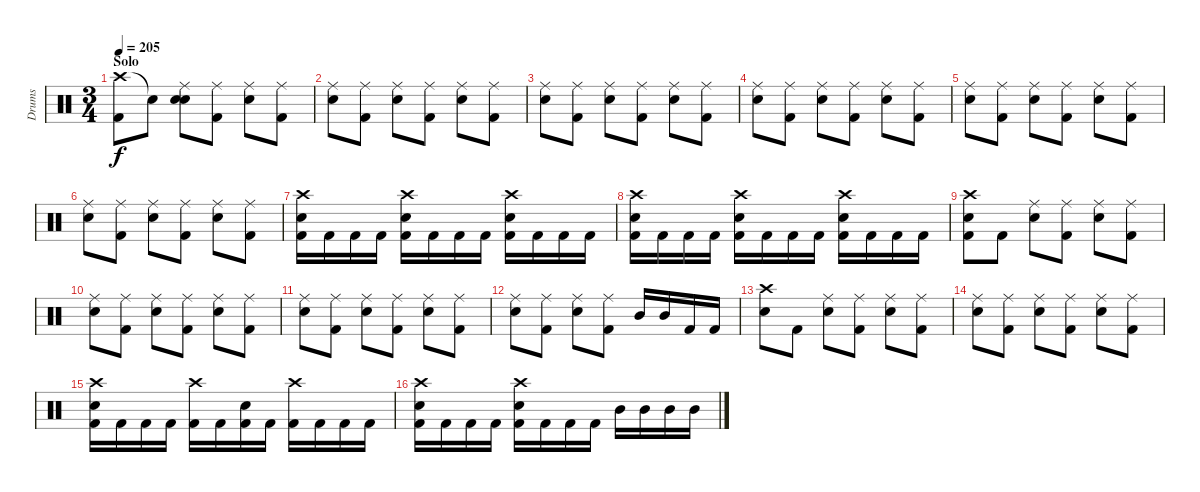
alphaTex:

\track ("Drums" "Drums") {instrument percussion}
\staff {score}
\articulation defaults
\ts (3 4)
\section ("" "Solo")
\tempo 205
\clef neutral
\ks c
("Crash high (hit)" "Kick (hit) 2").8{dy f} "Snare (hit)"{t}.8 ("Ride (middle)" "Snare (hit) 2" "Snare (hit)"{t}).8 ("Ride (middle)" "Kick (hit) 2").8 ("Ride (middle)" "Snare (hit) 2").8 ("Ride (middle)" "Kick (hit) 2").8 |
("Ride (middle)" "Snare (hit) 2").8 ("Ride (middle)" "Kick (hit) 2").8 ("Ride (middle)" "Snare (hit) 2").8 ("Ride (middle)" "Kick (hit) 2").8 ("Ride (middle)" "Snare (hit) 2").8 ("Ride (middle)" "Kick (hit) 2").8 |
("Ride (middle)" "Snare (hit) 2").8 ("Ride (middle)" "Kick (hit) 2").8 ("Ride (middle)" "Snare (hit) 2").8 ("Ride (middle)" "Kick (hit) 2").8 ("Ride (middle)" "Snare (hit) 2").8 ("Ride (middle)" "Kick (hit) 2").8 |
("Ride (middle)" "Snare (hit) 2").8 ("Ride (middle)" "Kick (hit) 2").8 ("Ride (middle)" "Snare (hit) 2").8 ("Ride (middle)" "Kick (hit) 2").8 ("Ride (middle)" "Snare (hit) 2").8 ("Ride (middle)" "Kick (hit) 2").8 |
("Ride (middle)" "Snare (hit) 2").8 ("Ride (middle)" "Kick (hit) 2").8 ("Ride (middle)" "Snare (hit) 2").8 ("Ride (middle)" "Kick (hit) 2").8 ("Ride (middle)" "Snare (hit) 2").8 ("Ride (middle)" "Kick (hit) 2").8 |
("Ride (middle)" "Snare (hit) 2").8 ("Ride (middle)" "Kick (hit) 2").8 ("Ride (middle)" "Snare (hit) 2").8 ("Ride (middle)" "Kick (hit) 2").8 ("Ride (middle)" "Snare (hit) 2").8 ("Ride (middle)" "Kick (hit) 2").8 |
("Crash high (hit)" "Snare (hit) 2" "Kick (hit) 2").16 "Kick (hit) 2".16 "Kick (hit) 2".16 "Kick (hit) 2".16 ("Crash high (hit)" "Snare (hit) 2" "Kick (hit) 2").16 "Kick (hit) 2".16 "Kick (hit) 2".16 "Kick (hit) 2".16 ("Crash high (hit)" "Snare (hit) 2" "Kick (hit) 2").16 "Kick (hit) 2".16 "Kick (hit) 2".16 "Kick (hit) 2".16 |
("Crash high (hit)" "Snare (hit) 2" "Kick (hit) 2").16 "Kick (hit) 2".16 "Kick (hit) 2".16 "Kick (hit) 2".16 ("Crash high (hit)" "Snare (hit) 2" "Kick (hit) 2").16 "Kick (hit) 2".16 "Kick (hit) 2".16 "Kick (hit) 2".16 ("Crash high (hit)" "Snare (hit) 2" "Kick (hit) 2").16 "Kick (hit) 2".16 "Kick (hit) 2".16 "Kick (hit) 2".16 |
("Crash high (hit)" "Snare (hit) 2" "Kick (hit) 2").8 "Kick (hit) 2".8 ("Ride (middle)" "Snare (hit) 2").8 ("Ride (middle)" "Kick (hit) 2").8 ("Ride (middle)" "Snare (hit) 2").8 ("Ride (middle)" "Kick (hit) 2").8 |
("Ride (middle)" "Snare (hit) 2").8 ("Ride (middle)" "Kick (hit) 2").8 ("Ride (middle)" "Snare (hit) 2").8 ("Ride (middle)" "Kick (hit) 2").8 ("Ride (middle)" "Snare (hit) 2").8 ("Ride (middle)" "Kick (hit) 2").8 |
("Ride (middle)" "Snare (hit) 2").8 ("Ride (middle)" "Kick (hit) 2").8 ("Ride (middle)" "Snare (hit) 2").8 ("Ride (middle)" "Kick (hit) 2").8 ("Ride (middle)" "Snare (hit) 2").8 ("Ride (middle)" "Kick (hit) 2").8 |
("Ride (middle)" "Snare (hit) 2").8 ("Ride (middle)" "Kick (hit) 2").8 ("Ride (middle)" "Snare (hit) 2").8 ("Ride (middle)" "Kick (hit) 2").8 "Mid Tom (hit)".16 "Mid Tom (hit)".16 "Kick (hit) 2".16 "Kick (hit) 2".16 |
("Crash high (hit)" "Snare (hit) 2").8 "Kick (hit) 2".8 ("Ride (middle)" "Snare (hit) 2").8 ("Ride (middle)" "Kick (hit) 2").8 ("Ride (middle)" "Snare (hit) 2").8 ("Ride (middle)" "Kick (hit) 2").8 |
("Ride (middle)" "Snare (hit) 2").8 ("Ride (middle)" "Kick (hit) 2").8 ("Ride (middle)" "Snare (hit) 2").8 ("Ride (middle)" "Kick (hit) 2").8 ("Ride (middle)" "Snare (hit) 2").8 ("Ride (middle)" "Kick (hit) 2").8 |
("Crash high (hit)" "Snare (hit) 2" "Kick (hit) 2").16 "Kick (hit) 2".16 "Kick (hit) 2".16 "Kick (hit) 2".16 ("Crash high (hit)" "Kick (hit) 2").16 "Kick (hit) 2".16 ("Snare (hit) 2" "Kick (hit) 2").16 "Kick (hit) 2".16 ("Crash high (hit)" "Kick (hit) 2").16 "Kick (hit) 2".16 "Kick (hit) 2".16 "Kick (hit) 2".16 |
("Crash high (hit)" "Snare (hit) 2" "Kick (hit) 2").16 "Kick (hit) 2".16 "Kick (hit) 2".16 "Kick (hit) 2".16 ("Crash high (hit)" "Snare (hit) 2" "Kick (hit) 2").16 "Kick (hit) 2".16 "Kick (hit) 2".16 "Kick (hit) 2".16 "Mid Tom (hit)".16 "Mid Tom (hit)".16 "Mid Tom (hit)".16 "Mid Tom (hit)".16
